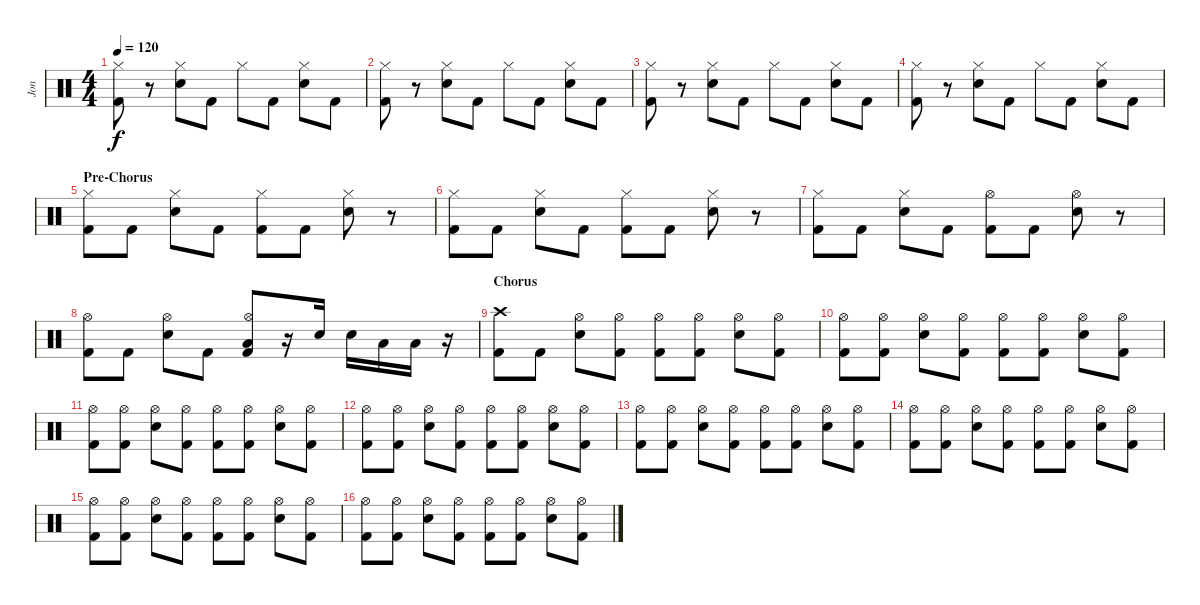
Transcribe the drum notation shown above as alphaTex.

\track ("Jon" "Jon") {instrument percussion}
\staff {score}
\articulation defaults
\ts (4 4)
\tempo 120
\clef neutral
\ks c
("Hi-Hat (closed)" "Kick (hit) 2").8{dy f} r.8 ("Hi-Hat (closed)" "Electric Snare (hit)").8 "Kick (hit) 2".8 "Hi-Hat (closed)".8 "Kick (hit) 2".8 ("Hi-Hat (closed)" "Electric Snare (hit)").8 "Kick (hit) 2".8 |
("Hi-Hat (closed)" "Kick (hit) 2").8 r.8 ("Hi-Hat (closed)" "Electric Snare (hit)").8 "Kick (hit) 2".8 "Hi-Hat (closed)".8 "Kick (hit) 2".8 ("Hi-Hat (closed)" "Electric Snare (hit)").8 "Kick (hit) 2".8 |
("Hi-Hat (closed)" "Kick (hit) 2").8 r.8 ("Hi-Hat (closed)" "Electric Snare (hit)").8 "Kick (hit) 2".8 "Hi-Hat (closed)".8 "Kick (hit) 2".8 ("Hi-Hat (closed)" "Electric Snare (hit)").8 "Kick (hit) 2".8 |
("Hi-Hat (closed)" "Kick (hit) 2").8 r.8 ("Hi-Hat (closed)" "Electric Snare (hit)").8 "Kick (hit) 2".8 "Hi-Hat (closed)".8 "Kick (hit) 2".8 ("Hi-Hat (closed)" "Electric Snare (hit)").8 "Kick (hit) 2".8 |
\section ("" "Pre-Chorus")
("Hi-Hat (closed)" "Kick (hit) 2").8 "Kick (hit) 2".8 ("Hi-Hat (closed)" "Electric Snare (hit)").8 "Kick (hit) 2".8 ("Hi-Hat (closed)" "Kick (hit) 2").8 "Kick (hit) 2".8 ("Hi-Hat (closed)" "Electric Snare (hit)").8 r.8 |
("Hi-Hat (closed)" "Kick (hit) 2").8 "Kick (hit) 2".8 ("Hi-Hat (closed)" "Electric Snare (hit)").8 "Kick (hit) 2".8 ("Hi-Hat (closed)" "Kick (hit) 2").8 "Kick (hit) 2".8 ("Hi-Hat (closed)" "Electric Snare (hit)").8 r.8 |
("Hi-Hat (closed)" "Kick (hit) 2").8 "Kick (hit) 2".8 ("Hi-Hat (closed)" "Electric Snare (hit)").8 "Kick (hit) 2".8 ("Hi-Hat (open)" "Kick (hit) 2").8 "Kick (hit) 2".8 ("Hi-Hat (open)" "Electric Snare (hit)").8 r.8 |
("Hi-Hat (open)" "Kick (hit) 2").8 "Kick (hit) 2".8 ("Hi-Hat (open)" "Electric Snare (hit)").8 "Kick (hit) 2".8 ("Hi-Hat (open)" "Low Floor Tom (hit)" "Kick (hit) 2").8 r.16 "Electric Snare (hit)".16 "Electric Snare (hit)".16 "Low Tom (hit)".16 "Low Floor Tom (hit)".16 r.16 |
\section ("" "Chorus")
("Crash high (hit)" "Kick (hit) 2").8 "Kick (hit) 2".8 ("Hi-Hat (open)" "Electric Snare (hit)").8 ("Hi-Hat (open)" "Kick (hit) 2").8 ("Hi-Hat (open)" "Kick (hit) 2").8 ("Hi-Hat (open)" "Kick (hit) 2").8 ("Hi-Hat (open)" "Electric Snare (hit)").8 ("Hi-Hat (open)" "Kick (hit) 2").8 |
("Hi-Hat (open)" "Kick (hit) 2").8 ("Hi-Hat (open)" "Kick (hit) 2").8 ("Hi-Hat (open)" "Electric Snare (hit)").8 ("Hi-Hat (open)" "Kick (hit) 2").8 ("Hi-Hat (open)" "Kick (hit) 2").8 ("Hi-Hat (open)" "Kick (hit) 2").8 ("Hi-Hat (open)" "Electric Snare (hit)").8 ("Hi-Hat (open)" "Kick (hit) 2").8 |
("Hi-Hat (open)" "Kick (hit) 2").8 ("Hi-Hat (open)" "Kick (hit) 2").8 ("Hi-Hat (open)" "Electric Snare (hit)").8 ("Hi-Hat (open)" "Kick (hit) 2").8 ("Hi-Hat (open)" "Kick (hit) 2").8 ("Hi-Hat (open)" "Kick (hit) 2").8 ("Hi-Hat (open)" "Electric Snare (hit)").8 ("Hi-Hat (open)" "Kick (hit) 2").8 |
("Hi-Hat (open)" "Kick (hit) 2").8 ("Hi-Hat (open)" "Kick (hit) 2").8 ("Hi-Hat (open)" "Electric Snare (hit)").8 ("Hi-Hat (open)" "Kick (hit) 2").8 ("Hi-Hat (open)" "Kick (hit) 2").8 ("Hi-Hat (open)" "Kick (hit) 2").8 ("Hi-Hat (open)" "Electric Snare (hit)").8 ("Hi-Hat (open)" "Kick (hit) 2").8 |
("Hi-Hat (open)" "Kick (hit) 2").8 ("Hi-Hat (open)" "Kick (hit) 2").8 ("Hi-Hat (open)" "Electric Snare (hit)").8 ("Hi-Hat (open)" "Kick (hit) 2").8 ("Hi-Hat (open)" "Kick (hit) 2").8 ("Hi-Hat (open)" "Kick (hit) 2").8 ("Hi-Hat (open)" "Electric Snare (hit)").8 ("Hi-Hat (open)" "Kick (hit) 2").8 |
("Hi-Hat (open)" "Kick (hit) 2").8 ("Hi-Hat (open)" "Kick (hit) 2").8 ("Hi-Hat (open)" "Electric Snare (hit)").8 ("Hi-Hat (open)" "Kick (hit) 2").8 ("Hi-Hat (open)" "Kick (hit) 2").8 ("Hi-Hat (open)" "Kick (hit) 2").8 ("Hi-Hat (open)" "Electric Snare (hit)").8 ("Hi-Hat (open)" "Kick (hit) 2").8 |
("Hi-Hat (open)" "Kick (hit) 2").8 ("Hi-Hat (open)" "Kick (hit) 2").8 ("Hi-Hat (open)" "Electric Snare (hit)").8 ("Hi-Hat (open)" "Kick (hit) 2").8 ("Hi-Hat (open)" "Kick (hit) 2").8 ("Hi-Hat (open)" "Kick (hit) 2").8 ("Hi-Hat (open)" "Electric Snare (hit)").8 ("Hi-Hat (open)" "Kick (hit) 2").8 |
("Hi-Hat (open)" "Kick (hit) 2").8 ("Hi-Hat (open)" "Kick (hit) 2").8 ("Hi-Hat (open)" "Electric Snare (hit)").8 ("Hi-Hat (open)" "Kick (hit) 2").8 ("Hi-Hat (open)" "Kick (hit) 2").8 ("Hi-Hat (open)" "Kick (hit) 2").8 ("Hi-Hat (open)" "Electric Snare (hit)").8 ("Hi-Hat (open)" "Kick (hit) 2").8
